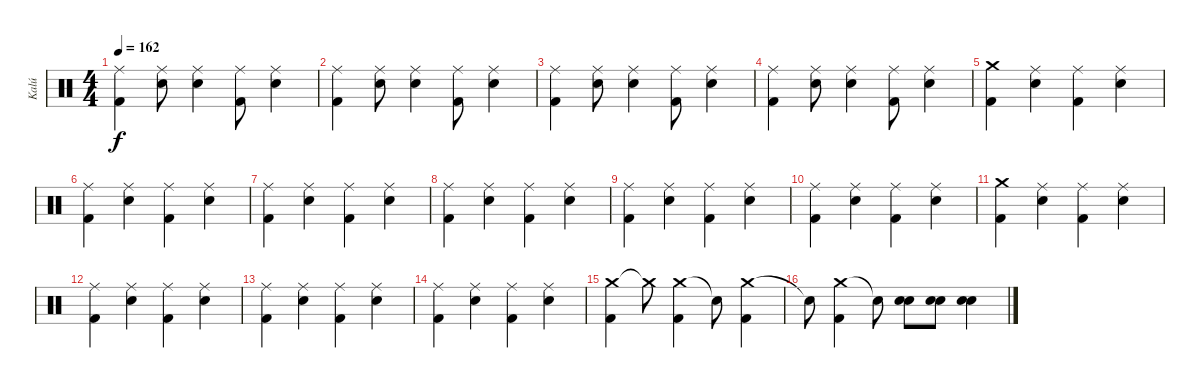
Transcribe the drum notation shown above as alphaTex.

\track ("Kalú" "Kalú") {instrument percussion}
\staff {score}
\articulation defaults
\ts (4 4)
\tempo 162
\clef neutral
\ks c
("Ride (middle)" "Kick (hit) 2").4{dy f} ("Ride (middle)" "Electric Snare (hit)").8 ("Ride (middle)" "Electric Snare (hit)").4 ("Ride (middle)" "Kick (hit) 2").8 ("Ride (middle)" "Electric Snare (hit)").4 |
("Ride (middle)" "Kick (hit) 2").4 ("Ride (middle)" "Electric Snare (hit)").8 ("Ride (middle)" "Electric Snare (hit)").4 ("Ride (middle)" "Kick (hit) 2").8 ("Ride (middle)" "Electric Snare (hit)").4 |
("Ride (middle)" "Kick (hit) 2").4 ("Ride (middle)" "Electric Snare (hit)").8 ("Ride (middle)" "Electric Snare (hit)").4 ("Ride (middle)" "Kick (hit) 2").8 ("Ride (middle)" "Electric Snare (hit)").4 |
("Ride (middle)" "Kick (hit) 2").4 ("Ride (middle)" "Electric Snare (hit)").8 ("Ride (middle)" "Electric Snare (hit)").4 ("Ride (middle)" "Kick (hit) 2").8 ("Ride (middle)" "Electric Snare (hit)").4 |
("Crash medium (hit)" "Kick (hit) 2").4 ("Ride (middle)" "Electric Snare (hit)").4 ("Ride (middle)" "Kick (hit) 2").4 ("Ride (middle)" "Electric Snare (hit)").4 |
("Ride (middle)" "Kick (hit) 2").4 ("Ride (middle)" "Electric Snare (hit)").4 ("Ride (middle)" "Kick (hit) 2").4 ("Ride (middle)" "Electric Snare (hit)").4 |
("Ride (middle)" "Kick (hit) 2").4 ("Ride (middle)" "Electric Snare (hit)").4 ("Ride (middle)" "Kick (hit) 2").4 ("Ride (middle)" "Electric Snare (hit)").4 |
("Ride (middle)" "Kick (hit) 2").4 ("Ride (middle)" "Electric Snare (hit)").4 ("Ride (middle)" "Kick (hit) 2").4 ("Ride (middle)" "Electric Snare (hit)").4 |
("Ride (middle)" "Kick (hit) 2").4 ("Ride (middle)" "Electric Snare (hit)").4 ("Ride (middle)" "Kick (hit) 2").4 ("Ride (middle)" "Electric Snare (hit)").4 |
("Ride (middle)" "Kick (hit) 2").4 ("Ride (middle)" "Electric Snare (hit)").4 ("Ride (middle)" "Kick (hit) 2").4 ("Ride (middle)" "Electric Snare (hit)").4 |
("Crash medium (hit)" "Kick (hit) 2").4 ("Ride (middle)" "Electric Snare (hit)").4 ("Ride (middle)" "Kick (hit) 2").4 ("Ride (middle)" "Electric Snare (hit)").4 |
("Ride (middle)" "Kick (hit) 2").4 ("Ride (middle)" "Electric Snare (hit)").4 ("Ride (middle)" "Kick (hit) 2").4 ("Ride (middle)" "Electric Snare (hit)").4 |
("Ride (middle)" "Kick (hit) 2").4 ("Ride (middle)" "Electric Snare (hit)").4 ("Ride (middle)" "Kick (hit) 2").4 ("Ride (middle)" "Electric Snare (hit)").4 |
("Ride (middle)" "Kick (hit) 2").4 ("Ride (middle)" "Electric Snare (hit)").4 ("Ride (middle)" "Kick (hit) 2").4 ("Ride (middle)" "Electric Snare (hit)").4 |
("Crash medium (hit)" "Kick (hit) 2").4 "Crash medium (hit)"{t}.8 ("Crash medium (hit)" "Kick (hit) 2").4 "Snare (hit)"{t}.8 ("Crash medium (hit)" "Kick (hit) 2").4 |
"Snare (hit)"{t}.8 ("Crash medium (hit)" "Kick (hit) 2").4 "Electric Snare (hit)"{t}.8 ("Electric Snare (hit)" "Electric Snare (hit)").8 ("Electric Snare (hit)" "Electric Snare (hit)").8 ("Electric Snare (hit)" "Electric Snare (hit)").4
